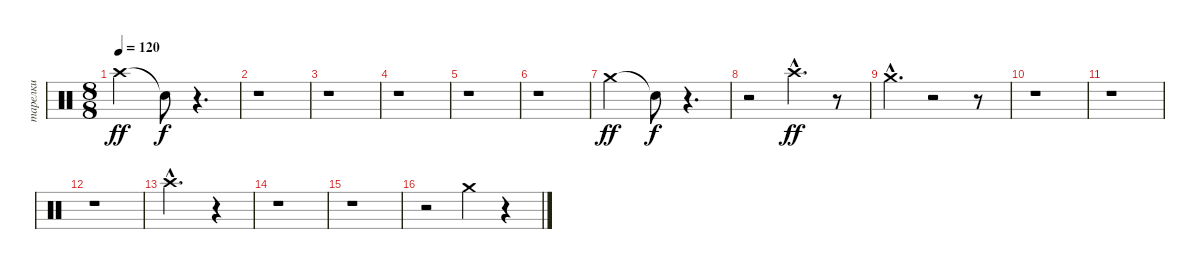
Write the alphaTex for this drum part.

\track ("тарелки" "тарелки") {instrument percussion}
\staff {score}
\articulation defaults
\ts (8 8)
\tempo 120
\clef neutral
\ks c "Crash high (hit)".2{dy ff} "Snare (hit)"{t}.8{dy f}
r.4{d} |
r.1 |
r.1 |
r.1 |
r.1 |
r.1 |
"Crash medium (hit)".2{dy ff} "Snare (hit)"{t}.8{dy f} r.4{d} |
r.2 "Crash high (hit)"{hac}.4{d dy ff} r.8 |
"Crash medium (hit)"{hac}.4{d} r.2 r.8 |
r.1 |
r.1 |
r.1 |
"Crash high (hit)"{hac}.2{d} r.4 |
r.1 |
r.1 |
r.2 "Crash medium (hit)".4 r.4
